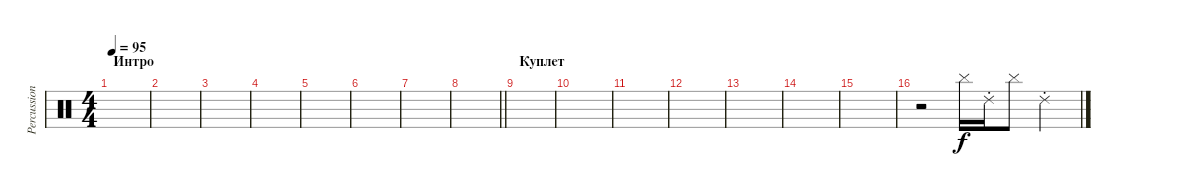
\track ("Percussion" "Percussion") {instrument percussion}
\staff {score}
\articulation defaults
\ts (4 4)
\section ("" "Интро")
\tempo 95
\clef neutral
\ks c
|
|
|
|
|
|
|
\barLineRight lightlight
|
\section ("" "Куплет")
|
|
|
|
|
|
|
r.2 "Cymbal (hit)".16 "Ride (choke) 2".16 "Cymbal (hit)".8 "Ride (choke) 2".4
